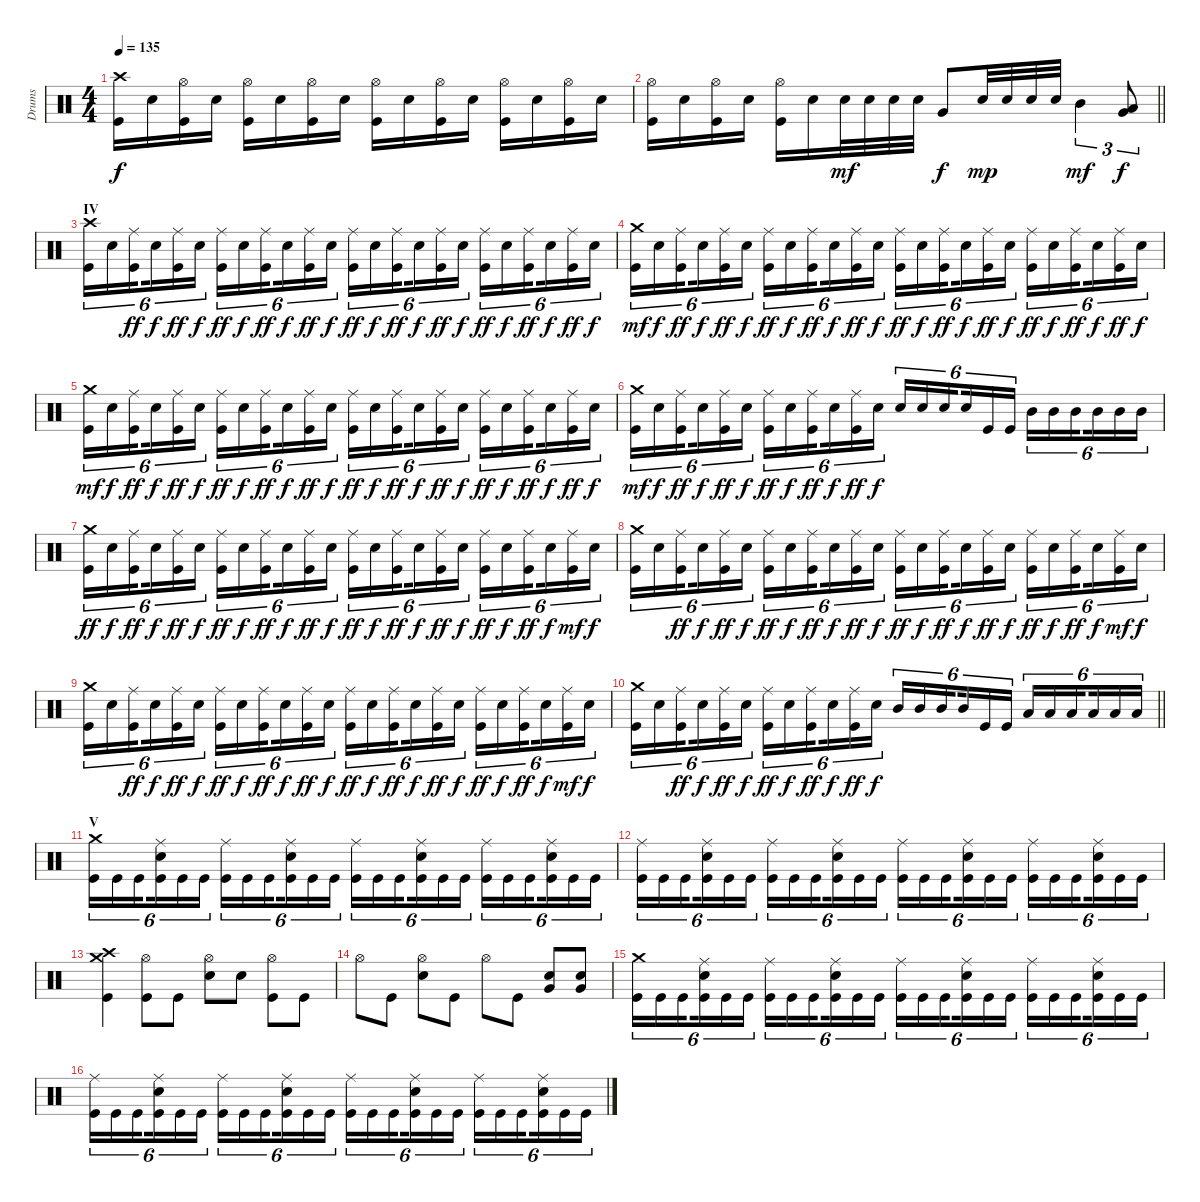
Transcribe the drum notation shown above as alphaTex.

\track ("Drums" "Drums") {instrument percussion}
\staff {score}
\articulation defaults
\ts (4 4)
\tempo 135
\clef neutral
\ks c
("Kick (hit)" "Crash high (hit)").16{dy f} "Electric Snare (hit)".16 ("Kick (hit)" "Hi-Hat (open)").16 "Electric Snare (hit)".16 ("Kick (hit)" "Hi-Hat (open)").16 "Electric Snare (hit)".16 ("Kick (hit)" "Hi-Hat (open)").16 "Electric Snare (hit)".16 ("Kick (hit)" "Hi-Hat (open)").16 "Electric Snare (hit)".16 ("Kick (hit)" "Hi-Hat (open)").16 "Electric Snare (hit)".16 ("Kick (hit)" "Hi-Hat (open)").16 "Electric Snare (hit)".16 ("Kick (hit)" "Hi-Hat (open)").16 "Electric Snare (hit)".16 |
\barLineRight lightlight
("Kick (hit)" "Hi-Hat (open)").16 "Electric Snare (hit)".16 ("Kick (hit)" "Hi-Hat (open)").16 "Electric Snare (hit)".16 ("Kick (hit)" "Hi-Hat (open)").16 "Electric Snare (hit)".16 "Electric Snare (hit)".32{dy mf} "Electric Snare (hit)".32 "Electric Snare (hit)".32 "Electric Snare (hit)".32 "Very Low Tom (hit)".8{dy f} "Electric Snare (hit)".32{dy mp} "Electric Snare (hit)".32 "Electric Snare (hit)".32 "Electric Snare (hit)".32 "Mid Tom (hit)".4{tu (3 2) dy mf} ("Low Tom (hit)" "Very Low Tom (hit)").8{tu (3 2) dy f} |
\section ("" "IV")
("Kick (hit)" "Crash high (hit)").16{tu (6 4)} "Electric Snare (hit)".16{tu (6 4)} ("Kick (hit)" "Ride (middle)").16{tu (6 4) dy ff beam splitsecondary} "Electric Snare (hit)".16{tu (6 4) dy f} ("Kick (hit)" "Ride (middle)").16{tu (6 4) dy ff} "Electric Snare (hit)".16{tu (6 4) dy f} ("Kick (hit)" "Ride (middle)").16{tu (6 4) dy ff} "Electric Snare (hit)".16{tu (6 4) dy f} ("Kick (hit)" "Ride (middle)").16{tu (6 4) dy ff beam splitsecondary} "Electric Snare (hit)".16{tu (6 4) dy f} ("Kick (hit)" "Ride (middle)").16{tu (6 4) dy ff} "Electric Snare (hit)".16{tu (6 4) dy f} ("Kick (hit)" "Ride (middle)").16{tu (6 4) dy ff} "Electric Snare (hit)".16{tu (6 4) dy f} ("Kick (hit)" "Ride (middle)").16{tu (6 4) dy ff beam splitsecondary} "Electric Snare (hit)".16{tu (6 4) dy f} ("Kick (hit)" "Ride (middle)").16{tu (6 4) dy ff} "Electric Snare (hit)".16{tu (6 4) dy f} ("Kick (hit)" "Ride (middle)").16{tu (6 4) dy ff} "Electric Snare (hit)".16{tu (6 4) dy f} ("Kick (hit)" "Ride (middle)").16{tu (6 4) dy ff beam splitsecondary} "Electric Snare (hit)".16{tu (6 4) dy f} ("Kick (hit)" "Ride (middle)").16{tu (6 4) dy ff} "Electric Snare (hit)".16{tu (6 4) dy f} |
("Kick (hit)" "Crash medium (hit)").16{tu (6 4) dy mf} "Electric Snare (hit)".16{tu (6 4) dy f} ("Kick (hit)" "Ride (middle)").16{tu (6 4) dy ff beam splitsecondary} "Electric Snare (hit)".16{tu (6 4) dy f} ("Kick (hit)" "Ride (middle)").16{tu (6 4) dy ff} "Electric Snare (hit)".16{tu (6 4) dy f} ("Kick (hit)" "Ride (middle)").16{tu (6 4) dy ff} "Electric Snare (hit)".16{tu (6 4) dy f} ("Kick (hit)" "Ride (middle)").16{tu (6 4) dy ff beam splitsecondary} "Electric Snare (hit)".16{tu (6 4) dy f} ("Kick (hit)" "Ride (middle)").16{tu (6 4) dy ff} "Electric Snare (hit)".16{tu (6 4) dy f} ("Kick (hit)" "Ride (middle)").16{tu (6 4) dy ff} "Electric Snare (hit)".16{tu (6 4) dy f} ("Kick (hit)" "Ride (middle)").16{tu (6 4) dy ff beam splitsecondary} "Electric Snare (hit)".16{tu (6 4) dy f} ("Kick (hit)" "Ride (middle)").16{tu (6 4) dy ff} "Electric Snare (hit)".16{tu (6 4) dy f} ("Kick (hit)" "Ride (middle)").16{tu (6 4) dy ff} "Electric Snare (hit)".16{tu (6 4) dy f} ("Kick (hit)" "Ride (middle)").16{tu (6 4) dy ff beam splitsecondary} "Electric Snare (hit)".16{tu (6 4) dy f} ("Kick (hit)" "Ride (middle)").16{tu (6 4) dy ff} "Electric Snare (hit)".16{tu (6 4) dy f} |
("Kick (hit)" "Crash medium (hit)").16{tu (6 4) dy mf} "Electric Snare (hit)".16{tu (6 4) dy f} ("Kick (hit)" "Ride (middle)").16{tu (6 4) dy ff beam splitsecondary} "Electric Snare (hit)".16{tu (6 4) dy f} ("Kick (hit)" "Ride (middle)").16{tu (6 4) dy ff} "Electric Snare (hit)".16{tu (6 4) dy f} ("Kick (hit)" "Ride (middle)").16{tu (6 4) dy ff} "Electric Snare (hit)".16{tu (6 4) dy f} ("Kick (hit)" "Ride (middle)").16{tu (6 4) dy ff beam splitsecondary} "Electric Snare (hit)".16{tu (6 4) dy f} ("Kick (hit)" "Ride (middle)").16{tu (6 4) dy ff} "Electric Snare (hit)".16{tu (6 4) dy f} ("Kick (hit)" "Ride (middle)").16{tu (6 4) dy ff} "Electric Snare (hit)".16{tu (6 4) dy f} ("Kick (hit)" "Ride (middle)").16{tu (6 4) dy ff beam splitsecondary} "Electric Snare (hit)".16{tu (6 4) dy f} ("Kick (hit)" "Ride (middle)").16{tu (6 4) dy ff} "Electric Snare (hit)".16{tu (6 4) dy f} ("Kick (hit)" "Ride (middle)").16{tu (6 4) dy ff} "Electric Snare (hit)".16{tu (6 4) dy f} ("Kick (hit)" "Ride (middle)").16{tu (6 4) dy ff beam splitsecondary} "Electric Snare (hit)".16{tu (6 4) dy f} ("Kick (hit)" "Ride (middle)").16{tu (6 4) dy ff} "Electric Snare (hit)".16{tu (6 4) dy f} |
("Kick (hit)" "Crash medium (hit)").16{tu (6 4) dy mf} "Electric Snare (hit)".16{tu (6 4) dy f} ("Kick (hit)" "Ride (middle)").16{tu (6 4) dy ff beam splitsecondary} "Electric Snare (hit)".16{tu (6 4) dy f} ("Kick (hit)" "Ride (middle)").16{tu (6 4) dy ff} "Electric Snare (hit)".16{tu (6 4) dy f} ("Kick (hit)" "Ride (middle)").16{tu (6 4) dy ff} "Electric Snare (hit)".16{tu (6 4) dy f} ("Kick (hit)" "Ride (middle)").16{tu (6 4) dy ff beam splitsecondary} "Electric Snare (hit)".16{tu (6 4) dy f} ("Kick (hit)" "Ride (middle)").16{tu (6 4) dy ff} "Electric Snare (hit)".16{tu (6 4) dy f} "Electric Snare (hit)".16{tu (6 4)} "Electric Snare (hit)".16{tu (6 4)} "Electric Snare (hit)".16{tu (6 4) beam splitsecondary} "Electric Snare (hit)".16{tu (6 4)} "Kick (hit)".16{tu (6 4)} "Kick (hit)".16{tu (6 4)} "Mid Tom (hit)".16{tu (6 4)} "Mid Tom (hit)".16{tu (6 4)} "Mid Tom (hit)".16{tu (6 4) beam splitsecondary} "Mid Tom (hit)".16{tu (6 4)} "Mid Tom (hit)".16{tu (6 4)} "Mid Tom (hit)".16{tu (6 4)} |
("Kick (hit)" "Crash medium (hit)").16{tu (6 4) dy ff} "Electric Snare (hit)".16{tu (6 4) dy f} ("Kick (hit)" "Ride (middle)").16{tu (6 4) dy ff beam splitsecondary} "Electric Snare (hit)".16{tu (6 4) dy f} ("Kick (hit)" "Ride (middle)").16{tu (6 4) dy ff} "Electric Snare (hit)".16{tu (6 4) dy f} ("Kick (hit)" "Ride (middle)").16{tu (6 4) dy ff} "Electric Snare (hit)".16{tu (6 4) dy f} ("Kick (hit)" "Ride (middle)").16{tu (6 4) dy ff beam splitsecondary} "Electric Snare (hit)".16{tu (6 4) dy f} ("Kick (hit)" "Ride (middle)").16{tu (6 4) dy ff} "Electric Snare (hit)".16{tu (6 4) dy f} ("Kick (hit)" "Ride (middle)").16{tu (6 4) dy ff} "Electric Snare (hit)".16{tu (6 4) dy f} ("Kick (hit)" "Ride (middle)").16{tu (6 4) dy ff beam splitsecondary} "Electric Snare (hit)".16{tu (6 4) dy f} ("Kick (hit)" "Ride (middle)").16{tu (6 4) dy ff} "Electric Snare (hit)".16{tu (6 4) dy f} ("Kick (hit)" "Ride (middle)").16{tu (6 4) dy ff} "Electric Snare (hit)".16{tu (6 4) dy f} ("Kick (hit)" "Ride (middle)").16{tu (6 4) dy ff beam splitsecondary} "Electric Snare (hit)".16{tu (6 4) dy f} ("Kick (hit)" "Ride (middle)").16{tu (6 4) dy mf} "Electric Snare (hit)".16{tu (6 4) dy f} |
("Kick (hit)" "Crash medium (hit)").16{tu (6 4)} "Electric Snare (hit)".16{tu (6 4)} ("Kick (hit)" "Ride (middle)").16{tu (6 4) dy ff beam splitsecondary} "Electric Snare (hit)".16{tu (6 4) dy f} ("Kick (hit)" "Ride (middle)").16{tu (6 4) dy ff} "Electric Snare (hit)".16{tu (6 4) dy f} ("Kick (hit)" "Ride (middle)").16{tu (6 4) dy ff} "Electric Snare (hit)".16{tu (6 4) dy f} ("Kick (hit)" "Ride (middle)").16{tu (6 4) dy ff beam splitsecondary} "Electric Snare (hit)".16{tu (6 4) dy f} ("Kick (hit)" "Ride (middle)").16{tu (6 4) dy ff} "Electric Snare (hit)".16{tu (6 4) dy f} ("Kick (hit)" "Ride (middle)").16{tu (6 4) dy ff} "Electric Snare (hit)".16{tu (6 4) dy f} ("Kick (hit)" "Ride (middle)").16{tu (6 4) dy ff beam splitsecondary} "Electric Snare (hit)".16{tu (6 4) dy f} ("Kick (hit)" "Ride (middle)").16{tu (6 4) dy ff} "Electric Snare (hit)".16{tu (6 4) dy f} ("Kick (hit)" "Ride (middle)").16{tu (6 4) dy ff} "Electric Snare (hit)".16{tu (6 4) dy f} ("Kick (hit)" "Ride (middle)").16{tu (6 4) dy ff beam splitsecondary} "Electric Snare (hit)".16{tu (6 4) dy f} ("Kick (hit)" "Ride (middle)").16{tu (6 4) dy mf} "Electric Snare (hit)".16{tu (6 4) dy f} |
("Kick (hit)" "Crash medium (hit)").16{tu (6 4)} "Electric Snare (hit)".16{tu (6 4)} ("Kick (hit)" "Ride (middle)").16{tu (6 4) dy ff beam splitsecondary} "Electric Snare (hit)".16{tu (6 4) dy f} ("Kick (hit)" "Ride (middle)").16{tu (6 4) dy ff} "Electric Snare (hit)".16{tu (6 4) dy f} ("Kick (hit)" "Ride (middle)").16{tu (6 4) dy ff} "Electric Snare (hit)".16{tu (6 4) dy f} ("Kick (hit)" "Ride (middle)").16{tu (6 4) dy ff beam splitsecondary} "Electric Snare (hit)".16{tu (6 4) dy f} ("Kick (hit)" "Ride (middle)").16{tu (6 4) dy ff} "Electric Snare (hit)".16{tu (6 4) dy f} ("Kick (hit)" "Ride (middle)").16{tu (6 4) dy ff} "Electric Snare (hit)".16{tu (6 4) dy f} ("Kick (hit)" "Ride (middle)").16{tu (6 4) dy ff beam splitsecondary} "Electric Snare (hit)".16{tu (6 4) dy f} ("Kick (hit)" "Ride (middle)").16{tu (6 4) dy ff} "Electric Snare (hit)".16{tu (6 4) dy f} ("Kick (hit)" "Ride (middle)").16{tu (6 4) dy ff} "Electric Snare (hit)".16{tu (6 4) dy f} ("Kick (hit)" "Ride (middle)").16{tu (6 4) dy ff beam splitsecondary} "Electric Snare (hit)".16{tu (6 4) dy f} ("Kick (hit)" "Ride (middle)").16{tu (6 4) dy mf} "Electric Snare (hit)".16{tu (6 4) dy f} |
\barLineRight lightlight
("Kick (hit)" "Crash medium (hit)").16{tu (6 4)} "Electric Snare (hit)".16{tu (6 4)} ("Kick (hit)" "Ride (middle)").16{tu (6 4) dy ff beam splitsecondary} "Electric Snare (hit)".16{tu (6 4) dy f} ("Kick (hit)" "Ride (middle)").16{tu (6 4) dy ff} "Electric Snare (hit)".16{tu (6 4) dy f} ("Kick (hit)" "Ride (middle)").16{tu (6 4) dy ff} "Electric Snare (hit)".16{tu (6 4) dy f} ("Kick (hit)" "Ride (middle)").16{tu (6 4) dy ff beam splitsecondary} "Electric Snare (hit)".16{tu (6 4) dy f} ("Kick (hit)" "Ride (middle)").16{tu (6 4) dy ff} "Electric Snare (hit)".16{tu (6 4) dy f} "Mid Tom (hit)".16{tu (6 4)} "Mid Tom (hit)".16{tu (6 4)} "Mid Tom (hit)".16{tu (6 4) beam splitsecondary} "Mid Tom (hit)".16{tu (6 4)} "Kick (hit)".16{tu (6 4)} "Kick (hit)".16{tu (6 4)} "Low Tom (hit)".16{tu (6 4)} "Low Tom (hit)".16{tu (6 4)} "Low Tom (hit)".16{tu (6 4) beam splitsecondary} "Low Tom (hit)".16{tu (6 4)} "Low Tom (hit)".16{tu (6 4)} "Low Tom (hit)".16{tu (6 4)} |
\section ("" "V")
("Kick (hit)" "Crash medium (hit)").16{tu (6 4)} "Kick (hit)".16{tu (6 4)} "Kick (hit)".16{tu (6 4) beam splitsecondary} ("Kick (hit)" "Electric Snare (hit)" "Ride (middle)").16{tu (6 4)} "Kick (hit)".16{tu (6 4)} "Kick (hit)".16{tu (6 4)} ("Kick (hit)" "Ride (middle)").16{tu (6 4)} "Kick (hit)".16{tu (6 4)} "Kick (hit)".16{tu (6 4) beam splitsecondary} ("Kick (hit)" "Electric Snare (hit)" "Ride (middle)").16{tu (6 4)} "Kick (hit)".16{tu (6 4)} "Kick (hit)".16{tu (6 4)} ("Kick (hit)" "Ride (middle)").16{tu (6 4)} "Kick (hit)".16{tu (6 4)} "Kick (hit)".16{tu (6 4) beam splitsecondary} ("Kick (hit)" "Electric Snare (hit)" "Ride (middle)").16{tu (6 4)} "Kick (hit)".16{tu (6 4)} "Kick (hit)".16{tu (6 4)} ("Kick (hit)" "Ride (middle)").16{tu (6 4)} "Kick (hit)".16{tu (6 4)} "Kick (hit)".16{tu (6 4) beam splitsecondary} ("Kick (hit)" "Electric Snare (hit)" "Ride (middle)").16{tu (6 4)} "Kick (hit)".16{tu (6 4)} "Kick (hit)".16{tu (6 4)} |
("Kick (hit)" "Ride (middle)").16{tu (6 4)} "Kick (hit)".16{tu (6 4)} "Kick (hit)".16{tu (6 4) beam splitsecondary} ("Kick (hit)" "Electric Snare (hit)" "Ride (middle)").16{tu (6 4)} "Kick (hit)".16{tu (6 4)} "Kick (hit)".16{tu (6 4)} ("Kick (hit)" "Ride (middle)").16{tu (6 4)} "Kick (hit)".16{tu (6 4)} "Kick (hit)".16{tu (6 4) beam splitsecondary} ("Kick (hit)" "Electric Snare (hit)" "Ride (middle)").16{tu (6 4)} "Kick (hit)".16{tu (6 4)} "Kick (hit)".16{tu (6 4)} ("Kick (hit)" "Ride (middle)").16{tu (6 4)} "Kick (hit)".16{tu (6 4)} "Kick (hit)".16{tu (6 4) beam splitsecondary} ("Kick (hit)" "Electric Snare (hit)" "Ride (middle)").16{tu (6 4)} "Kick (hit)".16{tu (6 4)} "Kick (hit)".16{tu (6 4)} ("Kick (hit)" "Ride (middle)").16{tu (6 4)} "Kick (hit)".16{tu (6 4)} "Kick (hit)".16{tu (6 4) beam splitsecondary} ("Kick (hit)" "Electric Snare (hit)" "Ride (middle)").16{tu (6 4)} "Kick (hit)".16{tu (6 4)} "Kick (hit)".16{tu (6 4)} |
("Kick (hit)" "Crash high (hit)" "Crash medium (hit)").4 ("Kick (hit)" "Hi-Hat (open)").8 "Kick (hit)".8 ("Electric Snare (hit)" "Hi-Hat (open)").8 "Electric Snare (hit)".8 ("Kick (hit)" "Hi-Hat (open)").8 "Kick (hit)".8 |
"Hi-Hat (open)".8 "Kick (hit)".8 ("Electric Snare (hit)" "Hi-Hat (open)").8 "Kick (hit)".8 "Hi-Hat (open)".8 "Kick (hit)".8 ("Electric Snare (hit)" "Very Low Tom (hit)").8 ("Electric Snare (hit)" "Very Low Tom (hit)").8 |
("Kick (hit)" "Crash medium (hit)").16{tu (6 4)} "Kick (hit)".16{tu (6 4)} "Kick (hit)".16{tu (6 4) beam splitsecondary} ("Kick (hit)" "Electric Snare (hit)" "Ride (middle)").16{tu (6 4)} "Kick (hit)".16{tu (6 4)} "Kick (hit)".16{tu (6 4)} ("Kick (hit)" "Ride (middle)").16{tu (6 4)} "Kick (hit)".16{tu (6 4)} "Kick (hit)".16{tu (6 4) beam splitsecondary} ("Kick (hit)" "Electric Snare (hit)" "Ride (middle)").16{tu (6 4)} "Kick (hit)".16{tu (6 4)} "Kick (hit)".16{tu (6 4)} ("Kick (hit)" "Ride (middle)").16{tu (6 4)} "Kick (hit)".16{tu (6 4)} "Kick (hit)".16{tu (6 4) beam splitsecondary} ("Kick (hit)" "Electric Snare (hit)" "Ride (middle)").16{tu (6 4)} "Kick (hit)".16{tu (6 4)} "Kick (hit)".16{tu (6 4)} ("Kick (hit)" "Ride (middle)").16{tu (6 4)} "Kick (hit)".16{tu (6 4)} "Kick (hit)".16{tu (6 4) beam splitsecondary} ("Kick (hit)" "Electric Snare (hit)" "Ride (middle)").16{tu (6 4)} "Kick (hit)".16{tu (6 4)} "Kick (hit)".16{tu (6 4)} |
("Kick (hit)" "Ride (middle)").16{tu (6 4)} "Kick (hit)".16{tu (6 4)} "Kick (hit)".16{tu (6 4) beam splitsecondary} ("Kick (hit)" "Electric Snare (hit)" "Ride (middle)").16{tu (6 4)} "Kick (hit)".16{tu (6 4)} "Kick (hit)".16{tu (6 4)} ("Kick (hit)" "Ride (middle)").16{tu (6 4)} "Kick (hit)".16{tu (6 4)} "Kick (hit)".16{tu (6 4) beam splitsecondary} ("Kick (hit)" "Electric Snare (hit)" "Ride (middle)").16{tu (6 4)} "Kick (hit)".16{tu (6 4)} "Kick (hit)".16{tu (6 4)} ("Kick (hit)" "Ride (middle)").16{tu (6 4)} "Kick (hit)".16{tu (6 4)} "Kick (hit)".16{tu (6 4) beam splitsecondary} ("Kick (hit)" "Electric Snare (hit)" "Ride (middle)").16{tu (6 4)} "Kick (hit)".16{tu (6 4)} "Kick (hit)".16{tu (6 4)} ("Kick (hit)" "Ride (middle)").16{tu (6 4)} "Kick (hit)".16{tu (6 4)} "Kick (hit)".16{tu (6 4) beam splitsecondary} ("Kick (hit)" "Electric Snare (hit)" "Ride (middle)").16{tu (6 4)} "Kick (hit)".16{tu (6 4)} "Kick (hit)".16{tu (6 4)}
